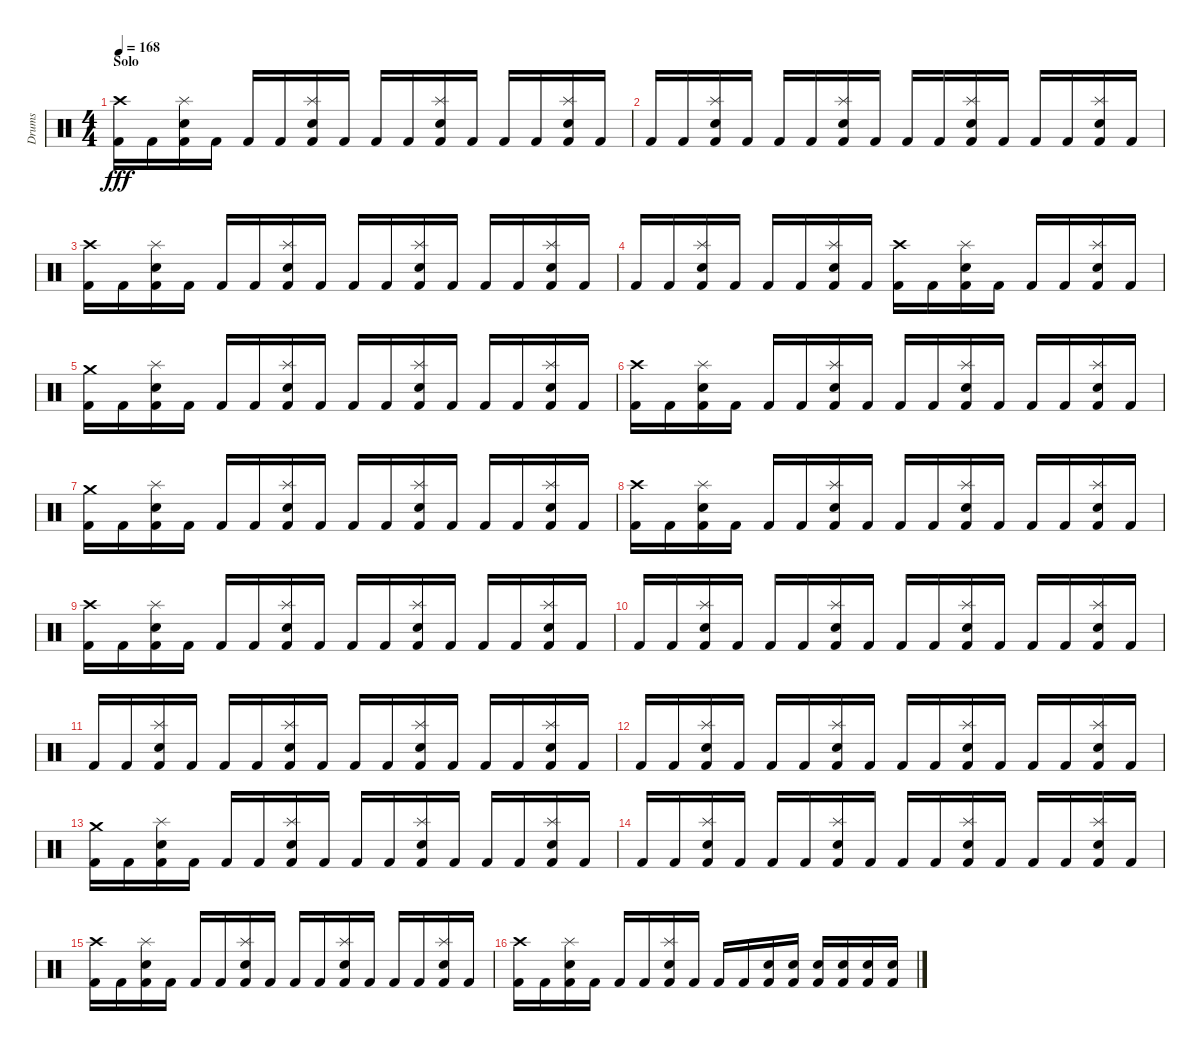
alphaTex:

\track ("Drums" "Drums") {instrument percussion}
\staff {score}
\articulation defaults
\ts (4 4)
\section ("" "Solo")
\tempo 168
\clef neutral
\ks c
("Crash high (hit)" "Kick (hit) 2").16{dy fff} "Kick (hit) 2".16 ("Splash (hit)" "Snare (hit) 2" "Kick (hit) 2").16 "Kick (hit) 2".16 "Kick (hit) 2".16 "Kick (hit) 2".16 ("Splash (hit)" "Snare (hit) 2" "Kick (hit) 2").16 "Kick (hit) 2".16 "Kick (hit) 2".16 "Kick (hit) 2".16 ("Splash (hit)" "Snare (hit) 2" "Kick (hit) 2").16 "Kick (hit) 2".16 "Kick (hit) 2".16 "Kick (hit) 2".16 ("Splash (hit)" "Snare (hit) 2" "Kick (hit) 2").16 "Kick (hit) 2".16 |
"Kick (hit) 2".16 "Kick (hit) 2".16 ("Splash (hit)" "Snare (hit) 2" "Kick (hit) 2").16 "Kick (hit) 2".16 "Kick (hit) 2".16 "Kick (hit) 2".16 ("Splash (hit)" "Snare (hit) 2" "Kick (hit) 2").16 "Kick (hit) 2".16 "Kick (hit) 2".16 "Kick (hit) 2".16 ("Splash (hit)" "Snare (hit) 2" "Kick (hit) 2").16 "Kick (hit) 2".16 "Kick (hit) 2".16 "Kick (hit) 2".16 ("Splash (hit)" "Snare (hit) 2" "Kick (hit) 2").16 "Kick (hit) 2".16 |
("Crash high (hit)" "Kick (hit) 2").16 "Kick (hit) 2".16 ("Splash (hit)" "Snare (hit) 2" "Kick (hit) 2").16 "Kick (hit) 2".16 "Kick (hit) 2".16 "Kick (hit) 2".16 ("Splash (hit)" "Snare (hit) 2" "Kick (hit) 2").16 "Kick (hit) 2".16 "Kick (hit) 2".16 "Kick (hit) 2".16 ("Splash (hit)" "Snare (hit) 2" "Kick (hit) 2").16 "Kick (hit) 2".16 "Kick (hit) 2".16 "Kick (hit) 2".16 ("Splash (hit)" "Snare (hit) 2" "Kick (hit) 2").16 "Kick (hit) 2".16 |
"Kick (hit) 2".16 "Kick (hit) 2".16 ("Splash (hit)" "Snare (hit) 2" "Kick (hit) 2").16 "Kick (hit) 2".16 "Kick (hit) 2".16 "Kick (hit) 2".16 ("Splash (hit)" "Snare (hit) 2" "Kick (hit) 2").16 "Kick (hit) 2".16 ("Crash high (hit)" "Kick (hit) 2").16 "Kick (hit) 2".16 ("Splash (hit)" "Snare (hit) 2" "Kick (hit) 2").16 "Kick (hit) 2".16 "Kick (hit) 2".16 "Kick (hit) 2".16 ("Splash (hit)" "Snare (hit) 2" "Kick (hit) 2").16 "Kick (hit) 2".16 |
("Crash medium (hit)" "Kick (hit) 2").16 "Kick (hit) 2".16 ("Splash (hit)" "Snare (hit) 2" "Kick (hit) 2").16 "Kick (hit) 2".16 "Kick (hit) 2".16 "Kick (hit) 2".16 ("Splash (hit)" "Snare (hit) 2" "Kick (hit) 2").16 "Kick (hit) 2".16 "Kick (hit) 2".16 "Kick (hit) 2".16 ("Splash (hit)" "Snare (hit) 2" "Kick (hit) 2").16 "Kick (hit) 2".16 "Kick (hit) 2".16 "Kick (hit) 2".16 ("Splash (hit)" "Snare (hit) 2" "Kick (hit) 2").16 "Kick (hit) 2".16 |
("Crash high (hit)" "Kick (hit) 2").16 "Kick (hit) 2".16 ("Splash (hit)" "Snare (hit) 2" "Kick (hit) 2").16 "Kick (hit) 2".16 "Kick (hit) 2".16 "Kick (hit) 2".16 ("Splash (hit)" "Snare (hit) 2" "Kick (hit) 2").16 "Kick (hit) 2".16 "Kick (hit) 2".16 "Kick (hit) 2".16 ("Splash (hit)" "Snare (hit) 2" "Kick (hit) 2").16 "Kick (hit) 2".16 "Kick (hit) 2".16 "Kick (hit) 2".16 ("Splash (hit)" "Snare (hit) 2" "Kick (hit) 2").16 "Kick (hit) 2".16 |
("Crash medium (hit)" "Kick (hit) 2").16 "Kick (hit) 2".16 ("Splash (hit)" "Snare (hit) 2" "Kick (hit) 2").16 "Kick (hit) 2".16 "Kick (hit) 2".16 "Kick (hit) 2".16 ("Splash (hit)" "Snare (hit) 2" "Kick (hit) 2").16 "Kick (hit) 2".16 "Kick (hit) 2".16 "Kick (hit) 2".16 ("Splash (hit)" "Snare (hit) 2" "Kick (hit) 2").16 "Kick (hit) 2".16 "Kick (hit) 2".16 "Kick (hit) 2".16 ("Splash (hit)" "Snare (hit) 2" "Kick (hit) 2").16 "Kick (hit) 2".16 |
("Crash high (hit)" "Kick (hit) 2").16 "Kick (hit) 2".16 ("Splash (hit)" "Snare (hit) 2" "Kick (hit) 2").16 "Kick (hit) 2".16 "Kick (hit) 2".16 "Kick (hit) 2".16 ("Splash (hit)" "Snare (hit) 2" "Kick (hit) 2").16 "Kick (hit) 2".16 "Kick (hit) 2".16 "Kick (hit) 2".16 ("Splash (hit)" "Snare (hit) 2" "Kick (hit) 2").16 "Kick (hit) 2".16 "Kick (hit) 2".16 "Kick (hit) 2".16 ("Splash (hit)" "Snare (hit) 2" "Kick (hit) 2").16 "Kick (hit) 2".16 |
("Crash high (hit)" "Kick (hit) 2").16 "Kick (hit) 2".16 ("Splash (hit)" "Snare (hit) 2" "Kick (hit) 2").16 "Kick (hit) 2".16 "Kick (hit) 2".16 "Kick (hit) 2".16 ("Splash (hit)" "Snare (hit) 2" "Kick (hit) 2").16 "Kick (hit) 2".16 "Kick (hit) 2".16 "Kick (hit) 2".16 ("Splash (hit)" "Snare (hit) 2" "Kick (hit) 2").16 "Kick (hit) 2".16 "Kick (hit) 2".16 "Kick (hit) 2".16 ("Splash (hit)" "Snare (hit) 2" "Kick (hit) 2").16 "Kick (hit) 2".16 |
"Kick (hit) 2".16 "Kick (hit) 2".16 ("Splash (hit)" "Snare (hit) 2" "Kick (hit) 2").16 "Kick (hit) 2".16 "Kick (hit) 2".16 "Kick (hit) 2".16 ("Splash (hit)" "Snare (hit) 2" "Kick (hit) 2").16 "Kick (hit) 2".16 "Kick (hit) 2".16 "Kick (hit) 2".16 ("Splash (hit)" "Snare (hit) 2" "Kick (hit) 2").16 "Kick (hit) 2".16 "Kick (hit) 2".16 "Kick (hit) 2".16 ("Splash (hit)" "Snare (hit) 2" "Kick (hit) 2").16 "Kick (hit) 2".16 |
"Kick (hit) 2".16 "Kick (hit) 2".16 ("Splash (hit)" "Snare (hit) 2" "Kick (hit) 2").16 "Kick (hit) 2".16 "Kick (hit) 2".16 "Kick (hit) 2".16 ("Splash (hit)" "Snare (hit) 2" "Kick (hit) 2").16 "Kick (hit) 2".16 "Kick (hit) 2".16 "Kick (hit) 2".16 ("Splash (hit)" "Snare (hit) 2" "Kick (hit) 2").16 "Kick (hit) 2".16 "Kick (hit) 2".16 "Kick (hit) 2".16 ("Splash (hit)" "Snare (hit) 2" "Kick (hit) 2").16 "Kick (hit) 2".16 |
"Kick (hit) 2".16 "Kick (hit) 2".16 ("Splash (hit)" "Snare (hit) 2" "Kick (hit) 2").16 "Kick (hit) 2".16 "Kick (hit) 2".16 "Kick (hit) 2".16 ("Splash (hit)" "Snare (hit) 2" "Kick (hit) 2").16 "Kick (hit) 2".16 "Kick (hit) 2".16 "Kick (hit) 2".16 ("Splash (hit)" "Snare (hit) 2" "Kick (hit) 2").16 "Kick (hit) 2".16 "Kick (hit) 2".16 "Kick (hit) 2".16 ("Splash (hit)" "Snare (hit) 2" "Kick (hit) 2").16 "Kick (hit) 2".16 |
("Crash medium (hit)" "Kick (hit) 2").16 "Kick (hit) 2".16 ("Splash (hit)" "Snare (hit) 2" "Kick (hit) 2").16 "Kick (hit) 2".16 "Kick (hit) 2".16 "Kick (hit) 2".16 ("Splash (hit)" "Snare (hit) 2" "Kick (hit) 2").16 "Kick (hit) 2".16 "Kick (hit) 2".16 "Kick (hit) 2".16 ("Splash (hit)" "Snare (hit) 2" "Kick (hit) 2").16 "Kick (hit) 2".16 "Kick (hit) 2".16 "Kick (hit) 2".16 ("Splash (hit)" "Snare (hit) 2" "Kick (hit) 2").16 "Kick (hit) 2".16 |
"Kick (hit) 2".16 "Kick (hit) 2".16 ("Splash (hit)" "Snare (hit) 2" "Kick (hit) 2").16 "Kick (hit) 2".16 "Kick (hit) 2".16 "Kick (hit) 2".16 ("Splash (hit)" "Snare (hit) 2" "Kick (hit) 2").16 "Kick (hit) 2".16 "Kick (hit) 2".16 "Kick (hit) 2".16 ("Splash (hit)" "Snare (hit) 2" "Kick (hit) 2").16 "Kick (hit) 2".16 "Kick (hit) 2".16 "Kick (hit) 2".16 ("Splash (hit)" "Snare (hit) 2" "Kick (hit) 2").16 "Kick (hit) 2".16 |
("Crash high (hit)" "Kick (hit) 2").16 "Kick (hit) 2".16 ("Splash (hit)" "Snare (hit) 2" "Kick (hit) 2").16 "Kick (hit) 2".16 "Kick (hit) 2".16 "Kick (hit) 2".16 ("Splash (hit)" "Snare (hit) 2" "Kick (hit) 2").16 "Kick (hit) 2".16 "Kick (hit) 2".16 "Kick (hit) 2".16 ("Splash (hit)" "Snare (hit) 2" "Kick (hit) 2").16 "Kick (hit) 2".16 "Kick (hit) 2".16 "Kick (hit) 2".16 ("Splash (hit)" "Snare (hit) 2" "Kick (hit) 2").16 "Kick (hit) 2".16 |
("Crash high (hit)" "Kick (hit) 2").16 "Kick (hit) 2".16 ("Splash (hit)" "Snare (hit) 2" "Kick (hit) 2").16 "Kick (hit) 2".16 "Kick (hit) 2".16 "Kick (hit) 2".16 ("Splash (hit)" "Snare (hit) 2" "Kick (hit) 2").16 "Kick (hit) 2".16 "Kick (hit) 2".16 "Kick (hit) 2".16 ("Snare (hit) 2" "Kick (hit) 2").16 ("Snare (hit) 2" "Kick (hit) 2").16 ("Snare (hit) 2" "Kick (hit) 2").16 ("Snare (hit) 2" "Kick (hit) 2").16 ("Snare (hit) 2" "Kick (hit) 2").16 ("Snare (hit) 2" "Kick (hit) 2").16
